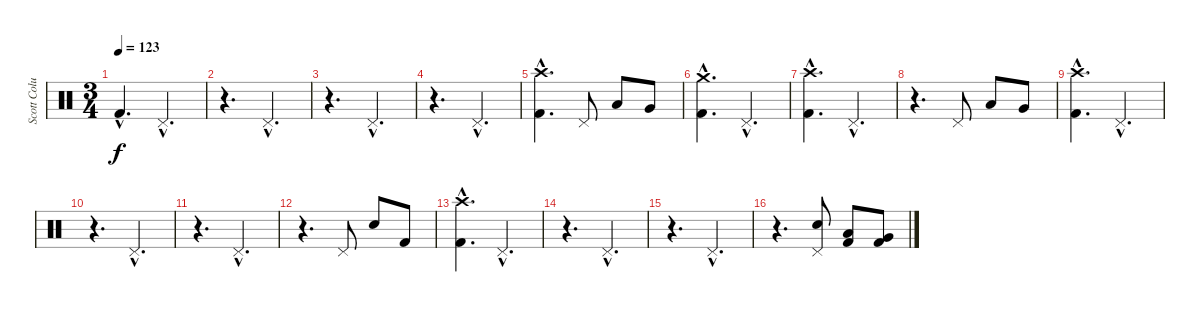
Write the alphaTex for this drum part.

\track ("Scott Columbus" "Scott Colu") {instrument percussion}
\staff {score}
\articulation defaults
\ts (3 4)
\tempo 123
\clef neutral
\ks c "Kick (hit) 2"{hac}.4{d dy f} "Pedal Hi-Hat (hit)"{hac}.4{d}
|
r.4{d} "Pedal Hi-Hat (hit)"{hac}.4{d} |
r.4{d} "Pedal Hi-Hat (hit)"{hac}.4{d} |
r.4{d} "Pedal Hi-Hat (hit)"{hac}.4{d} |
("Crash high (hit)"{hac} "Kick (hit) 2"{hac}).4{d} "Pedal Hi-Hat (hit)".8 "Low Tom (hit)".8 "Very Low Tom (hit)".8 |
("Crash medium (hit)"{hac} "Kick (hit) 2"{hac}).4{d} "Pedal Hi-Hat (hit)"{hac}.4{d} |
("Crash high (hit)"{hac} "Kick (hit) 2"{hac}).4{d} "Pedal Hi-Hat (hit)"{hac}.4{d} |
r.4{d} "Pedal Hi-Hat (hit)".8 "Low Tom (hit)".8 "Very Low Tom (hit)".8 |
("Crash high (hit)"{hac} "Kick (hit) 2"{hac}).4{d} "Pedal Hi-Hat (hit)"{hac}.4{d} |
r.4{d} "Pedal Hi-Hat (hit)"{hac}.4{d} |
r.4{d} "Pedal Hi-Hat (hit)"{hac}.4{d} |
r.4{d} "Pedal Hi-Hat (hit)".8 "Snare (hit) 2".8 "Kick (hit) 2".8 |
("Crash high (hit)"{hac} "Kick (hit) 2"{hac}).4{d} "Pedal Hi-Hat (hit)"{hac}.4{d} |
r.4{d} "Pedal Hi-Hat (hit)"{hac}.4{d} |
r.4{d} "Pedal Hi-Hat (hit)"{hac}.4{d} |
r.4{d} ("Pedal Hi-Hat (hit)" "Snare (hit) 2").8 ("Low Tom (hit)" "Kick (hit) 2").8 ("Very Low Tom (hit)" "Kick (hit) 2").8
